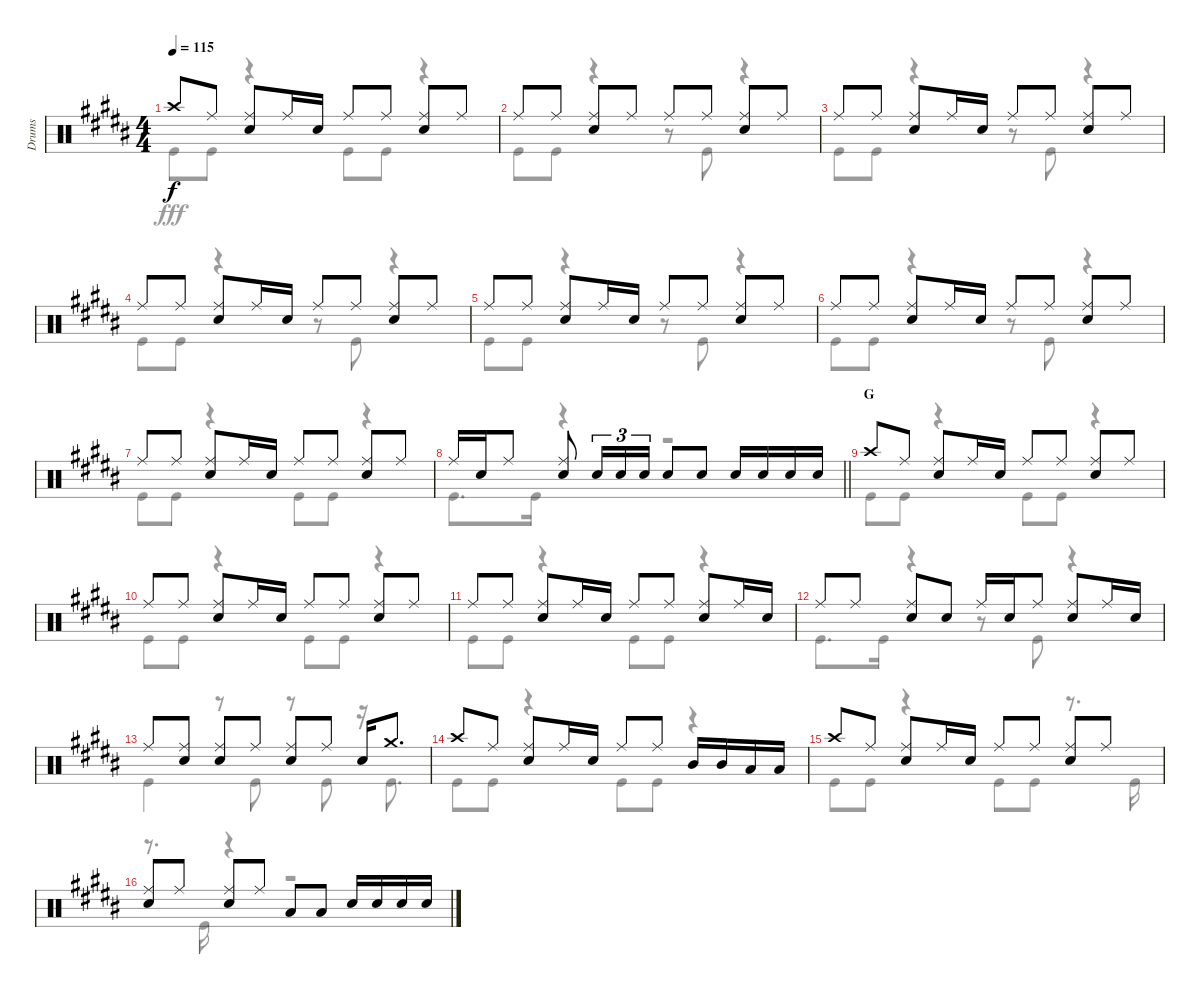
\track ("Drums" "Drums") {instrument percussion}
\staff {score}
\articulation defaults
\voice
\ts (4 4)
\tempo 115
\clef neutral
\ks b "Crash high (hit)".8{dy f} "Ride (middle)".8
("Ride (middle)" "Snare (hit) 2").8 "Ride (middle)".16 "Snare (hit) 2".16 "Ride (middle)".8 "Ride (middle)".8 ("Ride (middle)" "Snare (hit) 2").8 "Ride (middle)".8 |
"Ride (middle)".8 "Ride (middle)".8 ("Ride (middle)" "Snare (hit) 2").8 "Ride (middle)".8 "Ride (middle)".8 "Ride (middle)".8 ("Ride (middle)" "Snare (hit) 2").8 "Ride (middle)".8 |
"Ride (middle)".8 "Ride (middle)".8 ("Ride (middle)" "Snare (hit) 2").8 "Ride (middle)".16 "Snare (hit) 2".16 "Ride (middle)".8 "Ride (middle)".8 ("Ride (middle)" "Snare (hit) 2").8 "Ride (middle)".8 |
"Ride (middle)".8 "Ride (middle)".8 ("Ride (middle)" "Snare (hit) 2").8 "Ride (middle)".16 "Snare (hit) 2".16 "Ride (middle)".8 "Ride (middle)".8 ("Ride (middle)" "Snare (hit) 2").8 "Ride (middle)".8 |
"Ride (middle)".8 "Ride (middle)".8 ("Ride (middle)" "Snare (hit) 2").8 "Ride (middle)".16 "Snare (hit) 2".16 "Ride (middle)".8 "Ride (middle)".8 ("Ride (middle)" "Snare (hit) 2").8 "Ride (middle)".8 |
"Ride (middle)".8 "Ride (middle)".8 ("Ride (middle)" "Snare (hit) 2").8 "Ride (middle)".16 "Snare (hit) 2".16 "Ride (middle)".8 "Ride (middle)".8 ("Ride (middle)" "Snare (hit) 2").8 "Ride (middle)".8 |
"Ride (middle)".8 "Ride (middle)".8 ("Ride (middle)" "Snare (hit) 2").8 "Ride (middle)".16 "Snare (hit) 2".16 "Ride (middle)".8 "Ride (middle)".8 ("Ride (middle)" "Snare (hit) 2").8 "Ride (middle)".8 |
\barLineRight lightlight "Ride (middle)".16 "Snare (hit) 2".16 "Ride (middle)".8
("Ride (middle)" "Snare (hit) 2").8 "Snare (hit) 2".16{tu (3 2)} "Snare (hit) 2".16{tu (3 2)} "Snare (hit) 2".16{tu (3 2)} "Snare (hit) 2".8 "Snare (hit) 2".8 "Snare (hit) 2".16 "Snare (hit) 2".16 "Snare (hit) 2".16 "Snare (hit) 2".16 |
\section ("" "G")
"Crash high (hit)".8 "Ride (middle)".8 ("Ride (middle)" "Snare (hit) 2").8 "Ride (middle)".16 "Snare (hit) 2".16 "Ride (middle)".8 "Ride (middle)".8 ("Ride (middle)" "Snare (hit) 2").8 "Ride (middle)".8 |
"Ride (middle)".8 "Ride (middle)".8 ("Ride (middle)" "Snare (hit) 2").8 "Ride (middle)".16 "Snare (hit) 2".16 "Ride (middle)".8 "Ride (middle)".8 ("Ride (middle)" "Snare (hit) 2").8 "Ride (middle)".8 |
"Ride (middle)".8 "Ride (middle)".8 ("Ride (middle)" "Snare (hit) 2").8 "Ride (middle)".16 "Snare (hit) 2".16 "Ride (middle)".8 "Ride (middle)".8 ("Ride (middle)" "Snare (hit) 2").8 "Ride (middle)".16 "Snare (hit) 2".16 |
"Ride (middle)".8 "Ride (middle)".8 ("Ride (middle)" "Snare (hit) 2").8 "Snare (hit) 2".8 "Ride (middle)".16 "Snare (hit) 2".16 "Ride (middle)".8 ("Ride (middle)" "Snare (hit) 2").8 "Ride (middle)".16 "Snare (hit) 2".16 |
"Ride (middle)".8 ("Ride (middle)" "Snare (hit) 2").8 ("Ride (middle)" "Snare (hit) 2").8 "Ride (middle)".8 ("Ride (middle)" "Snare (hit) 2").8 "Ride (middle)".8 "Snare (hit) 2".16 "Crash medium (hit)".8{d} |
"Crash high (hit)".8 "Ride (middle)".8 ("Ride (middle)" "Snare (hit) 2").8 "Ride (middle)".16 "Snare (hit) 2".16 "Ride (middle)".8 "Ride (middle)".8 "Mid Tom (hit)".16 "Mid Tom (hit)".16 "Low Tom (hit)".16 "Low Tom (hit)".16 |
"Crash high (hit)".8 "Ride (middle)".8 ("Ride (middle)" "Snare (hit) 2").8 "Ride (middle)".16 "Snare (hit) 2".16 "Ride (middle)".8 "Ride (middle)".8 ("Ride (middle)" "Snare (hit) 2").8 "Ride (middle)".8 |
("Ride (middle)" "Snare (hit) 2").8 "Ride (middle)".8 ("Ride (middle)" "Snare (hit) 2").8 "Ride (middle)".8 "Low Tom (hit)".8 "Low Tom (hit)".8 "Snare (hit) 2".16 "Snare (hit) 2".16 "Snare (hit) 2".16 "Snare (hit) 2".16
\voice
\clef neutral
\ottava regular
\simile none
\ks b "Kick (hit)".8{dy fff} "Kick (hit)".8
r.4 "Kick (hit)".8 "Kick (hit)".8 r.4 |
"Kick (hit)".8 "Kick (hit)".8 r.4 r.8 "Kick (hit)".8 r.4 |
"Kick (hit)".8 "Kick (hit)".8 r.4 r.8 "Kick (hit)".8 r.4 |
"Kick (hit)".8 "Kick (hit)".8 r.4 r.8 "Kick (hit)".8 r.4 |
"Kick (hit)".8 "Kick (hit)".8 r.4 r.8 "Kick (hit)".8 r.4 |
"Kick (hit)".8 "Kick (hit)".8 r.4 r.8 "Kick (hit)".8 r.4 |
"Kick (hit)".8 "Kick (hit)".8 r.4 "Kick (hit)".8 "Kick (hit)".8 r.4 |
\barLineRight lightlight "Kick (hit)".8{d} "Kick (hit)".16
r.4 r.2 |
"Kick (hit)".8 "Kick (hit)".8 r.4 "Kick (hit)".8 "Kick (hit)".8 r.4 |
"Kick (hit)".8 "Kick (hit)".8 r.4 "Kick (hit)".8 "Kick (hit)".8 r.4 |
"Kick (hit)".8 "Kick (hit)".8 r.4 "Kick (hit)".8 "Kick (hit)".8 r.4 |
"Kick (hit)".8{d} "Kick (hit)".16 r.4 r.8 "Kick (hit)".8 r.4 |
"Kick (hit)".4 r.8 "Kick (hit)".8 r.8 "Kick (hit)".8 r.16 "Kick (hit)".8{d} |
"Kick (hit)".8 "Kick (hit)".8 r.4 "Kick (hit)".8 "Kick (hit)".8 r.4 |
"Kick (hit)".8 "Kick (hit)".8 r.4 "Kick (hit)".8 "Kick (hit)".8 r.8{d} "Kick (hit)".16 |
r.8{d} "Kick (hit)".16 r.4 r.2
